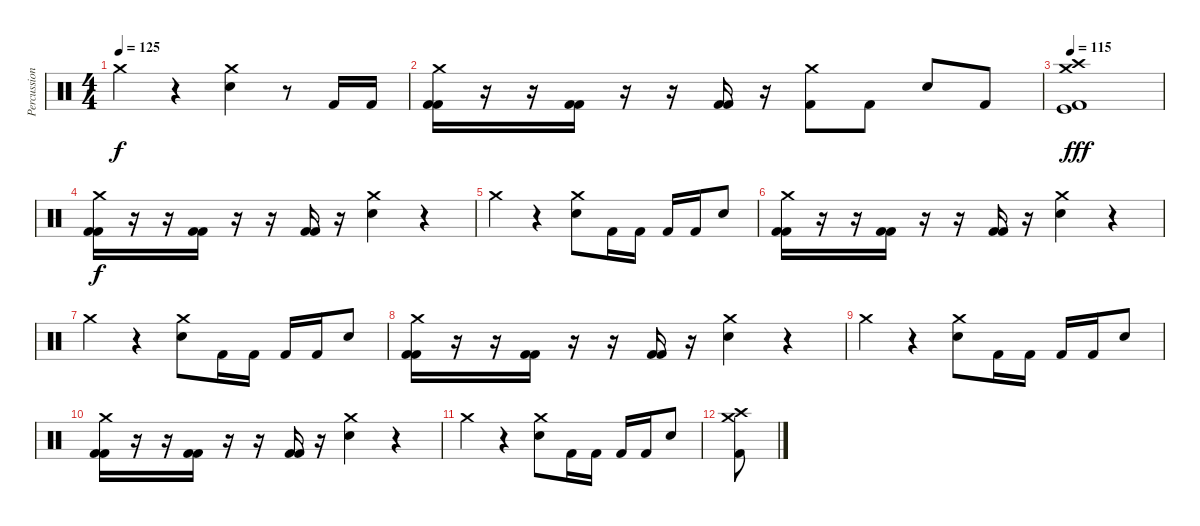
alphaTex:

\track ("Percussion" "Percussion") {instrument percussion}
\staff {score}
\articulation defaults
\ts (4 4)
\tempo 125
\clef neutral
\ks c "Crash medium (hit)".4{dy f}
r.4 ("Crash medium (hit)" "Electric Snare (hit)").4 r.8 "Kick (hit) 2".16 "Kick (hit) 2".16 |
("Crash medium (hit)" "Kick (hit) 2" "Kick (hit) 2").16 r.16 r.16 ("Kick (hit) 2" "Kick (hit) 2").16 r.16 r.16 ("Kick (hit) 2" "Kick (hit) 2").16 r.16 ("Crash medium (hit)" "Kick (hit) 2").8 "Kick (hit) 2".8 "Electric Snare (hit)".8 "Kick (hit) 2".8 |
\tempo 115
("Crash medium (hit)" "Crash high (hit)" "Kick (hit)" "Kick (hit) 2").1{dy fff} |
("Crash medium (hit)" "Kick (hit) 2" "Kick (hit) 2").16{dy f} r.16 r.16 ("Kick (hit) 2" "Kick (hit) 2").16 r.16 r.16 ("Kick (hit) 2" "Kick (hit) 2").16 r.16 ("Crash medium (hit)" "Electric Snare (hit)").4 r.4 |
"Crash medium (hit)".4 r.4 ("Crash medium (hit)" "Electric Snare (hit)").8 "Kick (hit) 2".16 "Kick (hit) 2".16 "Kick (hit) 2".16 "Kick (hit) 2".16 "Electric Snare (hit)".8 |
("Crash medium (hit)" "Kick (hit) 2" "Kick (hit) 2").16 r.16 r.16 ("Kick (hit) 2" "Kick (hit) 2").16 r.16 r.16 ("Kick (hit) 2" "Kick (hit) 2").16 r.16 ("Crash medium (hit)" "Electric Snare (hit)").4 r.4 |
"Crash medium (hit)".4 r.4 ("Crash medium (hit)" "Electric Snare (hit)").8 "Kick (hit) 2".16 "Kick (hit) 2".16 "Kick (hit) 2".16 "Kick (hit) 2".16 "Electric Snare (hit)".8 |
("Crash medium (hit)" "Kick (hit) 2" "Kick (hit) 2").16 r.16 r.16 ("Kick (hit) 2" "Kick (hit) 2").16 r.16 r.16 ("Kick (hit) 2" "Kick (hit) 2").16 r.16 ("Crash medium (hit)" "Electric Snare (hit)").4 r.4 |
"Crash medium (hit)".4 r.4 ("Crash medium (hit)" "Electric Snare (hit)").8 "Kick (hit) 2".16 "Kick (hit) 2".16 "Kick (hit) 2".16 "Kick (hit) 2".16 "Electric Snare (hit)".8 |
("Crash medium (hit)" "Kick (hit) 2" "Kick (hit) 2").16 r.16 r.16 ("Kick (hit) 2" "Kick (hit) 2").16 r.16 r.16 ("Kick (hit) 2" "Kick (hit) 2").16 r.16 ("Crash medium (hit)" "Electric Snare (hit)").4 r.4 |
"Crash medium (hit)".4 r.4 ("Crash medium (hit)" "Electric Snare (hit)").8 "Kick (hit) 2".16 "Kick (hit) 2".16 "Kick (hit) 2".16 "Kick (hit) 2".16 "Electric Snare (hit)".8 |
("Crash medium (hit)" "Crash high (hit)" "Kick (hit) 2").8
